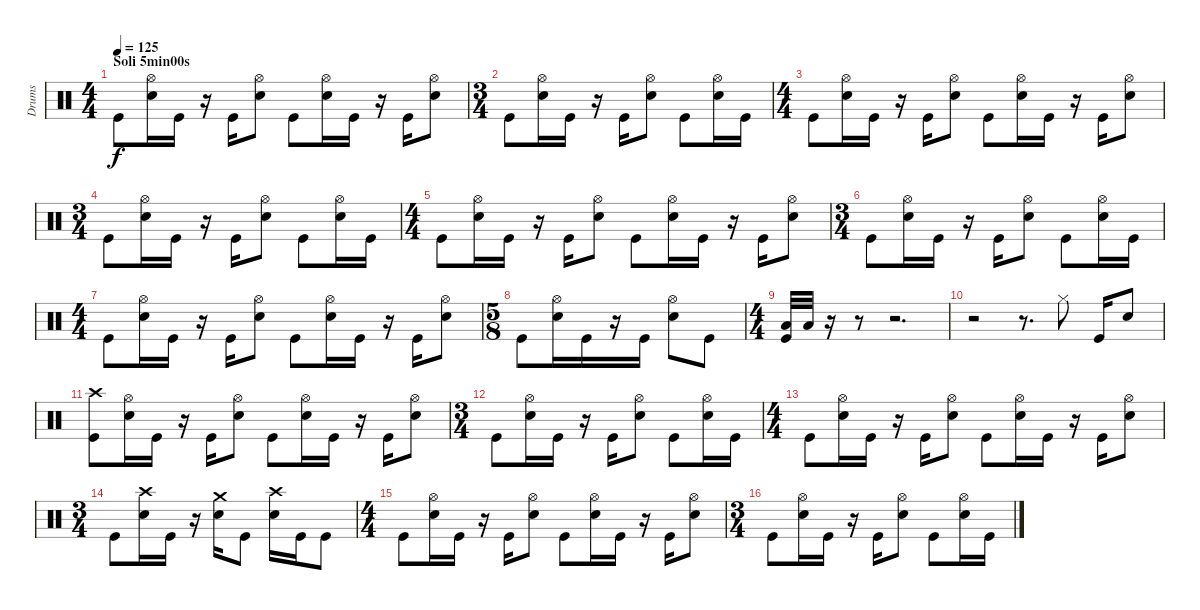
\track ("Drums" "Drums") {instrument percussion}
\staff {score}
\articulation defaults
\ts (4 4)
\section ("" "Soli 5min00s")
\tempo 125
\clef neutral
\ks c "Kick (hit)".8{dy f}
("Snare (hit) 2" "Hi-Hat (open)").16 "Kick (hit)".16 r.16 "Kick (hit)".16 ("Snare (hit) 2" "Hi-Hat (open)").8 "Kick (hit)".8 ("Snare (hit) 2" "Hi-Hat (open)").16 "Kick (hit)".16 r.16 "Kick (hit)".16 ("Snare (hit) 2" "Hi-Hat (open)").8 |
\ts (3 4)
"Kick (hit)".8 ("Snare (hit) 2" "Hi-Hat (open)").16 "Kick (hit)".16 r.16 "Kick (hit)".16 ("Snare (hit) 2" "Hi-Hat (open)").8 "Kick (hit)".8 ("Snare (hit) 2" "Hi-Hat (open)").16 "Kick (hit)".16 |
\ts (4 4)
"Kick (hit)".8 ("Snare (hit) 2" "Hi-Hat (open)").16 "Kick (hit)".16 r.16 "Kick (hit)".16 ("Snare (hit) 2" "Hi-Hat (open)").8 "Kick (hit)".8 ("Snare (hit) 2" "Hi-Hat (open)").16 "Kick (hit)".16 r.16 "Kick (hit)".16 ("Snare (hit) 2" "Hi-Hat (open)").8 |
\ts (3 4)
"Kick (hit)".8 ("Snare (hit) 2" "Hi-Hat (open)").16 "Kick (hit)".16 r.16 "Kick (hit)".16 ("Snare (hit) 2" "Hi-Hat (open)").8 "Kick (hit)".8 ("Snare (hit) 2" "Hi-Hat (open)").16 "Kick (hit)".16 |
\ts (4 4)
"Kick (hit)".8 ("Snare (hit) 2" "Hi-Hat (open)").16 "Kick (hit)".16 r.16 "Kick (hit)".16 ("Snare (hit) 2" "Hi-Hat (open)").8 "Kick (hit)".8 ("Snare (hit) 2" "Hi-Hat (open)").16 "Kick (hit)".16 r.16 "Kick (hit)".16 ("Snare (hit) 2" "Hi-Hat (open)").8 |
\ts (3 4)
"Kick (hit)".8 ("Snare (hit) 2" "Hi-Hat (open)").16 "Kick (hit)".16 r.16 "Kick (hit)".16 ("Snare (hit) 2" "Hi-Hat (open)").8 "Kick (hit)".8 ("Snare (hit) 2" "Hi-Hat (open)").16 "Kick (hit)".16 |
\ts (4 4)
"Kick (hit)".8 ("Snare (hit) 2" "Hi-Hat (open)").16 "Kick (hit)".16 r.16 "Kick (hit)".16 ("Snare (hit) 2" "Hi-Hat (open)").8 "Kick (hit)".8 ("Snare (hit) 2" "Hi-Hat (open)").16 "Kick (hit)".16 r.16 "Kick (hit)".16 ("Snare (hit) 2" "Hi-Hat (open)").8 |
\ts (5 8)
"Kick (hit)".8 ("Snare (hit) 2" "Hi-Hat (open)").16 "Kick (hit)".16 r.16 "Kick (hit)".16 ("Snare (hit) 2" "Hi-Hat (open)").8 "Kick (hit)".8 |
\ts (4 4)
("Kick (hit)" "Low Tom (hit)").32 "Low Tom (hit)".32 r.16 r.8 r.2{d} |
r.2 r.8{d} "Hi-Hat (closed)".8 "Kick (hit)".16 "Snare (hit) 2".8 |
("Kick (hit)" "Crash high (hit)").8 ("Snare (hit) 2" "Hi-Hat (open)").16 "Kick (hit)".16 r.16 "Kick (hit)".16 ("Snare (hit) 2" "Hi-Hat (open)").8 "Kick (hit)".8 ("Snare (hit) 2" "Hi-Hat (open)").16 "Kick (hit)".16 r.16 "Kick (hit)".16 ("Snare (hit) 2" "Hi-Hat (open)").8 |
\ts (3 4)
"Kick (hit)".8 ("Snare (hit) 2" "Hi-Hat (open)").16 "Kick (hit)".16 r.16 "Kick (hit)".16 ("Snare (hit) 2" "Hi-Hat (open)").8 "Kick (hit)".8 ("Snare (hit) 2" "Hi-Hat (open)").16 "Kick (hit)".16 |
\ts (4 4)
"Kick (hit)".8 ("Snare (hit) 2" "Hi-Hat (open)").16 "Kick (hit)".16 r.16 "Kick (hit)".16 ("Snare (hit) 2" "Hi-Hat (open)").8 "Kick (hit)".8 ("Snare (hit) 2" "Hi-Hat (open)").16 "Kick (hit)".16 r.16 "Kick (hit)".16 ("Snare (hit) 2" "Hi-Hat (open)").8 |
\ts (3 4)
"Kick (hit)".8 ("Snare (hit) 2" "Crash high (hit)").16 "Kick (hit)".16 r.16 ("Snare (hit) 2" "Crash medium (hit)").16 "Kick (hit)".8 ("Snare (hit) 2" "Crash high (hit)").16 "Kick (hit)".16 "Kick (hit)".8 |
\ts (4 4)
"Kick (hit)".8 ("Snare (hit) 2" "Hi-Hat (open)").16 "Kick (hit)".16 r.16 "Kick (hit)".16 ("Snare (hit) 2" "Hi-Hat (open)").8 "Kick (hit)".8 ("Snare (hit) 2" "Hi-Hat (open)").16 "Kick (hit)".16 r.16 "Kick (hit)".16 ("Snare (hit) 2" "Hi-Hat (open)").8 |
\ts (3 4)
"Kick (hit)".8 ("Snare (hit) 2" "Hi-Hat (open)").16 "Kick (hit)".16 r.16 "Kick (hit)".16 ("Snare (hit) 2" "Hi-Hat (open)").8 "Kick (hit)".8 ("Snare (hit) 2" "Hi-Hat (open)").16 "Kick (hit)".16
